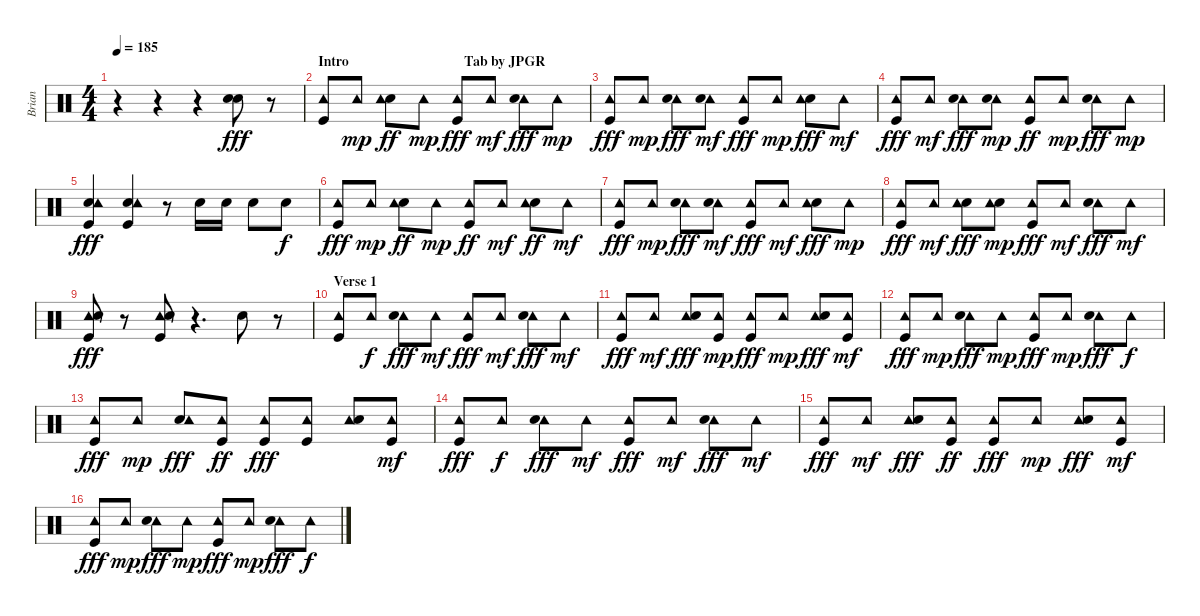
\track ("Brian" "Brian") {instrument percussion}
\staff {score}
\articulation defaults
\ts (4 4)
\tempo 185
\clef neutral
\ks c
r.4{dy fff} r.4 r.4 ("Electric Snare (hit)" "Snare (hit) 2").8 r.8 |
\section ("" "Intro                                 Tab by JPGR")
("Tambourine (hit)" "Kick (hit)").8 "Tambourine (hit)".8{dy mp} ("Electric Snare (hit)" "Tambourine (hit)").8{dy ff} "Tambourine (hit)".8{dy mp} ("Tambourine (hit)" "Kick (hit)").8{dy fff} "Tambourine (hit)".8{dy mf} ("Tambourine (hit)" "Electric Snare (hit)").8{dy fff} "Tambourine (hit)".8{dy mp} |
("Tambourine (hit)" "Kick (hit)").8{dy fff} "Tambourine (hit)".8{dy mp} ("Tambourine (hit)" "Electric Snare (hit)").8{dy fff} ("Tambourine (hit)" "Electric Snare (hit)").8{dy mf} ("Tambourine (hit)" "Kick (hit)").8{dy fff} "Tambourine (hit)".8{dy mp} ("Electric Snare (hit)" "Tambourine (hit)").8{dy fff} "Tambourine (hit)".8{dy mf} |
("Tambourine (hit)" "Kick (hit)").8{dy fff} "Tambourine (hit)".8{dy mf} ("Tambourine (hit)" "Electric Snare (hit)").8{dy fff} ("Tambourine (hit)" "Electric Snare (hit)").8{dy mp} ("Tambourine (hit)" "Kick (hit)").8{dy ff} "Tambourine (hit)".8{dy mp} ("Tambourine (hit)" "Electric Snare (hit)").8{dy fff} "Tambourine (hit)".8{dy mp} |
("Electric Snare (hit)" "Kick (hit)" "Tambourine (hit)").4{dy fff} ("Electric Snare (hit)" "Kick (hit)" "Tambourine (hit)").4 r.8 "Electric Snare (hit)".16 "Electric Snare (hit)".16 "Electric Snare (hit)".8 "Electric Snare (hit)".8{dy f} |
("Tambourine (hit)" "Kick (hit)").8{dy fff} "Tambourine (hit)".8{dy mp} ("Electric Snare (hit)" "Tambourine (hit)").8{dy ff} "Tambourine (hit)".8{dy mp} ("Kick (hit)" "Tambourine (hit)").8{dy ff} "Tambourine (hit)".8{dy mf} ("Electric Snare (hit)" "Tambourine (hit)").8{dy ff} "Tambourine (hit)".8{dy mf} |
("Tambourine (hit)" "Kick (hit)").8{dy fff} "Tambourine (hit)".8{dy mp} ("Tambourine (hit)" "Electric Snare (hit)").8{dy fff} ("Tambourine (hit)" "Electric Snare (hit)").8{dy mf} ("Tambourine (hit)" "Kick (hit)").8{dy fff} "Tambourine (hit)".8{dy mf} ("Electric Snare (hit)" "Tambourine (hit)").8{dy fff} "Tambourine (hit)".8{dy mp} |
("Tambourine (hit)" "Kick (hit)").8{dy fff} "Tambourine (hit)".8{dy mf} ("Electric Snare (hit)" "Tambourine (hit)").8{dy fff} ("Electric Snare (hit)" "Tambourine (hit)").8{dy mp} ("Kick (hit)" "Tambourine (hit)").8{dy fff} "Tambourine (hit)".8{dy mf} ("Tambourine (hit)" "Electric Snare (hit)").8{dy fff} "Tambourine (hit)".8{dy mf} |
("Tambourine (hit)" "Electric Snare (hit)" "Kick (hit)").8{dy fff} r.8 ("Tambourine (hit)" "Electric Snare (hit)" "Kick (hit)").8 r.4{d} "Electric Snare (hit)".8 r.8 |
\section ("" "Verse 1")
("Tambourine (hit)" "Kick (hit)").8 "Tambourine (hit)".8{dy f} ("Tambourine (hit)" "Electric Snare (hit)").8{dy fff} "Tambourine (hit)".8{dy mf} ("Tambourine (hit)" "Kick (hit)").8{dy fff} "Tambourine (hit)".8{dy mf} ("Tambourine (hit)" "Electric Snare (hit)").8{dy fff} "Tambourine (hit)".8{dy mf} |
("Tambourine (hit)" "Kick (hit)").8{dy fff} "Tambourine (hit)".8{dy mf} ("Tambourine (hit)" "Electric Snare (hit)").8{dy fff} ("Tambourine (hit)" "Kick (hit)").8{dy mp} ("Tambourine (hit)" "Kick (hit)").8{dy fff} "Tambourine (hit)".8{dy mp} ("Tambourine (hit)" "Electric Snare (hit)").8{dy fff} ("Kick (hit)" "Tambourine (hit)").8{dy mf} |
("Tambourine (hit)" "Kick (hit)").8{dy fff} "Tambourine (hit)".8{dy mp} ("Tambourine (hit)" "Electric Snare (hit)").8{dy fff} "Tambourine (hit)".8{dy mp} ("Tambourine (hit)" "Kick (hit)").8{dy fff} "Tambourine (hit)".8{dy mp} ("Tambourine (hit)" "Electric Snare (hit)").8{dy fff} "Tambourine (hit)".8{dy f} |
("Kick (hit)" "Tambourine (hit)").8{dy fff} "Tambourine (hit)".8{dy mp} ("Electric Snare (hit)" "Tambourine (hit)").8{dy fff} ("Tambourine (hit)" "Kick (hit)").8{dy ff} ("Tambourine (hit)" "Kick (hit)").8{dy fff} ("Tambourine (hit)" "Kick (hit)").8 ("Tambourine (hit)" "Electric Snare (hit)").8 ("Tambourine (hit)" "Kick (hit)").8{dy mf} |
("Kick (hit)" "Tambourine (hit)").8{dy fff} "Tambourine (hit)".8{dy f} ("Tambourine (hit)" "Electric Snare (hit)").8{dy fff} "Tambourine (hit)".8{dy mf} ("Tambourine (hit)" "Kick (hit)").8{dy fff} "Tambourine (hit)".8{dy mf} ("Tambourine (hit)" "Electric Snare (hit)").8{dy fff} "Tambourine (hit)".8{dy mf} |
("Tambourine (hit)" "Kick (hit)").8{dy fff} "Tambourine (hit)".8{dy mf} ("Tambourine (hit)" "Electric Snare (hit)").8{dy fff} ("Tambourine (hit)" "Kick (hit)").8{dy ff} ("Tambourine (hit)" "Kick (hit)").8{dy fff} "Tambourine (hit)".8{dy mp} ("Tambourine (hit)" "Electric Snare (hit)").8{dy fff} ("Kick (hit)" "Tambourine (hit)").8{dy mf} |
("Tambourine (hit)" "Kick (hit)").8{dy fff} "Tambourine (hit)".8{dy mp} ("Tambourine (hit)" "Electric Snare (hit)").8{dy fff} "Tambourine (hit)".8{dy mp} ("Tambourine (hit)" "Kick (hit)").8{dy fff} "Tambourine (hit)".8{dy mp} ("Tambourine (hit)" "Electric Snare (hit)").8{dy fff} "Tambourine (hit)".8{dy f}
